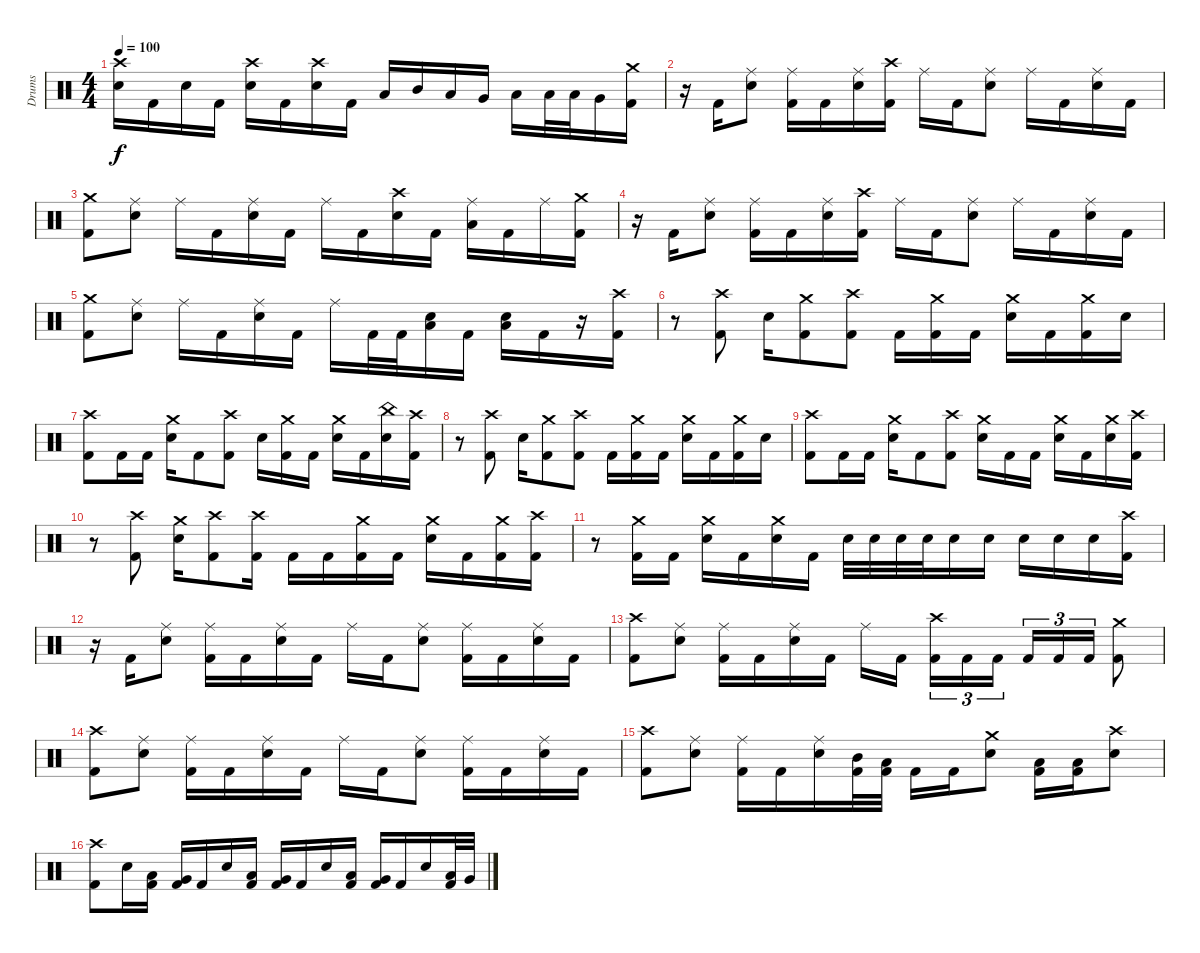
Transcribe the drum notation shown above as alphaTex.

\track ("Drums" "Drums") {instrument percussion}
\staff {score}
\articulation defaults
\ts (4 4)
\tempo 100
\clef neutral
\ks c
("Crash high (hit)" "Electric Snare (hit)").16{dy f} "Kick (hit) 2".16 "Electric Snare (hit)".16 "Kick (hit) 2".16 ("Crash high (hit)" "Electric Snare (hit)").16 "Kick (hit) 2".16 ("Crash high (hit)" "Electric Snare (hit)").16 "Kick (hit) 2".16 "Low Tom (hit)".16 "Mid Tom (hit)".16 "Low Tom (hit)".16 "Very Low Tom (hit)".16 "Low Floor Tom (hit)".16 "Low Tom (hit)".32 "Low Tom (hit)".32 "Very Low Tom (hit)".16 ("Crash medium (hit)" "Kick (hit) 2").16 |
r.16 "Kick (hit) 2".16 ("Ride (middle)" "Electric Snare (hit)").8 ("Ride (middle)" "Kick (hit) 2").16 "Kick (hit) 2".16 ("Ride (middle)" "Electric Snare (hit)").16 ("Crash high (hit)" "Kick (hit) 2").16 "Ride (middle)".16 "Kick (hit) 2".16 ("Ride (middle)" "Electric Snare (hit)").8 "Ride (middle)".16 "Kick (hit) 2".16 ("Ride (middle)" "Electric Snare (hit)").16 "Kick (hit) 2".16 |
("Crash medium (hit)" "Kick (hit) 2").8 ("Ride (middle)" "Electric Snare (hit)").8 "Ride (middle)".16 "Kick (hit) 2".16 ("Ride (middle)" "Electric Snare (hit)").16 "Kick (hit) 2".16 "Ride (middle)".16 "Kick (hit) 2".16 ("Crash high (hit)" "Electric Snare (hit)").16 "Kick (hit) 2".16 ("Ride (middle)" "Low Tom (hit)").16 "Kick (hit) 2".16 "Ride (middle)".16 ("Crash medium (hit)" "Kick (hit) 2").16 |
r.16 "Kick (hit) 2".16 ("Ride (middle)" "Electric Snare (hit)").8 ("Ride (middle)" "Kick (hit) 2").16 "Kick (hit) 2".16 ("Ride (middle)" "Electric Snare (hit)").16 ("Crash high (hit)" "Kick (hit) 2").16 "Ride (middle)".16 "Kick (hit) 2".16 ("Ride (middle)" "Electric Snare (hit)").8 "Ride (middle)".16 "Kick (hit) 2".16 ("Ride (middle)" "Electric Snare (hit)").16 "Kick (hit) 2".16 |
("Crash medium (hit)" "Kick (hit) 2").8 ("Ride (middle)" "Electric Snare (hit)").8 "Ride (middle)".16 "Kick (hit) 2".16 ("Ride (middle)" "Electric Snare (hit)").16 "Kick (hit) 2".16 "Ride (middle)".16 "Kick (hit) 2".32 "Kick (hit) 2".32 ("Low Tom (hit)" "Electric Snare (hit)").16 "Kick (hit) 2".16 ("Low Tom (hit)" "Electric Snare (hit)").16 "Kick (hit) 2".16 r.16 ("Crash high (hit)" "Kick (hit) 2").16 |
r.8 ("Crash high (hit)" "Kick (hit) 2").8 "Electric Snare (hit)".16 ("Crash medium (hit)" "Kick (hit) 2").8 ("Crash high (hit)" "Kick (hit) 2").8 "Kick (hit) 2".16 ("Crash medium (hit)" "Kick (hit) 2").16 "Kick (hit) 2".16 ("Crash medium (hit)" "Electric Snare (hit)").16 "Kick (hit) 2".16 ("Crash medium (hit)" "Kick (hit) 2").16 "Electric Snare (hit)".16 |
("Crash high (hit)" "Kick (hit) 2").8 "Kick (hit) 2".16 "Kick (hit) 2".16 ("Crash medium (hit)" "Electric Snare (hit)").16 "Kick (hit) 2".8 ("Crash high (hit)" "Kick (hit) 2").8 "Electric Snare (hit)".16 ("Crash medium (hit)" "Kick (hit) 2").16 "Kick (hit) 2".16 ("Crash medium (hit)" "Electric Snare (hit)").16 "Kick (hit) 2".16 ("China (hit)" "Electric Snare (hit)").16 ("Crash high (hit)" "Kick (hit) 2").16 |
r.8 ("Crash high (hit)" "Kick (hit) 2").8 "Electric Snare (hit)".16 ("Crash medium (hit)" "Kick (hit) 2").8 ("Crash high (hit)" "Kick (hit) 2").8 "Kick (hit) 2".16 ("Crash medium (hit)" "Kick (hit) 2").16 "Kick (hit) 2".16 ("Crash medium (hit)" "Electric Snare (hit)").16 "Kick (hit) 2".16 ("Crash medium (hit)" "Kick (hit) 2").16 "Electric Snare (hit)".16 |
("Crash high (hit)" "Kick (hit) 2").8 "Kick (hit) 2".16 "Kick (hit) 2".16 ("Crash medium (hit)" "Electric Snare (hit)").16 "Kick (hit) 2".8 ("Crash high (hit)" "Kick (hit) 2").8 ("Crash medium (hit)" "Electric Snare (hit)").16 "Kick (hit) 2".16 "Kick (hit) 2".16 ("Crash medium (hit)" "Electric Snare (hit)").16 "Kick (hit) 2".16 ("Crash medium (hit)" "Electric Snare (hit)").16 ("Crash high (hit)" "Kick (hit) 2").16 |
r.8 ("Crash high (hit)" "Kick (hit) 2").8 ("Crash medium (hit)" "Electric Snare (hit)").16 ("Crash high (hit)" "Kick (hit) 2").8 ("Crash high (hit)" "Kick (hit) 2").16 "Kick (hit) 2".16 "Kick (hit) 2".16 ("Crash medium (hit)" "Kick (hit) 2").16 "Kick (hit) 2".16 ("Crash medium (hit)" "Electric Snare (hit)").16 "Kick (hit) 2".16 ("Crash medium (hit)" "Kick (hit) 2").16 ("Crash high (hit)" "Kick (hit) 2").16 |
r.8 ("Crash medium (hit)" "Kick (hit) 2").16 "Kick (hit) 2".16 ("Crash medium (hit)" "Electric Snare (hit)").16 "Kick (hit) 2".16 ("Crash medium (hit)" "Electric Snare (hit)").16 "Kick (hit) 2".16 "Electric Snare (hit)".32 "Electric Snare (hit)".32 "Electric Snare (hit)".32 "Electric Snare (hit)".32 "Electric Snare (hit)".16 "Electric Snare (hit)".16 "Electric Snare (hit)".16 "Electric Snare (hit)".16 "Electric Snare (hit)".16 ("Crash high (hit)" "Kick (hit) 2").16 |
r.16 "Kick (hit) 2".16 ("Ride (middle)" "Electric Snare (hit)").8 ("Ride (middle)" "Kick (hit) 2").16 "Kick (hit) 2".16 ("Ride (middle)" "Electric Snare (hit)").16 "Kick (hit) 2".16 "Ride (middle)".16 "Kick (hit) 2".16 ("Ride (middle)" "Electric Snare (hit)").8 ("Ride (middle)" "Kick (hit) 2").16 "Kick (hit) 2".16 ("Ride (middle)" "Electric Snare (hit)").16 "Kick (hit) 2".16 |
("Crash high (hit)" "Kick (hit) 2").8 ("Ride (middle)" "Electric Snare (hit)").8 ("Ride (middle)" "Kick (hit) 2").16 "Kick (hit) 2".16 ("Ride (middle)" "Electric Snare (hit)").16 "Kick (hit) 2".16 "Ride (middle)".16 "Kick (hit) 2".16 ("Crash high (hit)" "Kick (hit) 2").16{tu (3 2)} "Kick (hit) 2".16{tu (3 2)} "Kick (hit) 2".16{tu (3 2)} "Kick (hit) 2".16{tu (3 2)} "Kick (hit) 2".16{tu (3 2)} "Kick (hit) 2".16{tu (3 2)} ("Crash medium (hit)" "Kick (hit) 2").8 |
("Crash high (hit)" "Kick (hit) 2").8 ("Ride (middle)" "Electric Snare (hit)").8 ("Ride (middle)" "Kick (hit) 2").16 "Kick (hit) 2".16 ("Ride (middle)" "Electric Snare (hit)").16 "Kick (hit) 2".16 "Ride (middle)".16 "Kick (hit) 2".16 ("Ride (middle)" "Electric Snare (hit)").8 ("Ride (middle)" "Kick (hit) 2").16 "Kick (hit) 2".16 ("Ride (middle)" "Electric Snare (hit)").16 "Kick (hit) 2".16 |
("Crash high (hit)" "Kick (hit) 2").8 ("Ride (middle)" "Electric Snare (hit)").8 ("Ride (middle)" "Kick (hit) 2").16 "Kick (hit) 2".16 ("Ride (middle)" "Electric Snare (hit)").16 ("Mid Tom (hit)" "Kick (hit) 2").32 ("Low Tom (hit)" "Kick (hit) 2").32 "Kick (hit) 2".16 "Kick (hit) 2".16 ("Crash medium (hit)" "Electric Snare (hit)").8 ("Low Tom (hit)" "Kick (hit) 2").16 ("Low Tom (hit)" "Kick (hit) 2").16 ("Crash high (hit)" "Electric Snare (hit)").8 |
("Crash high (hit)" "Kick (hit) 2").8 "Electric Snare (hit)".16 ("Low Tom (hit)" "Kick (hit) 2").16 ("Very Low Tom (hit)" "Kick (hit) 2").16 "Kick (hit) 2".16 "Electric Snare (hit)".16 ("Low Tom (hit)" "Kick (hit) 2").16 ("Very Low Tom (hit)" "Kick (hit) 2").16 "Kick (hit) 2".16 "Electric Snare (hit)".16 ("Low Tom (hit)" "Kick (hit) 2").16 ("Very Low Tom (hit)" "Kick (hit) 2").16 "Kick (hit) 2".16 "Electric Snare (hit)".16 ("Low Tom (hit)" "Kick (hit) 2").32 "Very Low Tom (hit)".32
